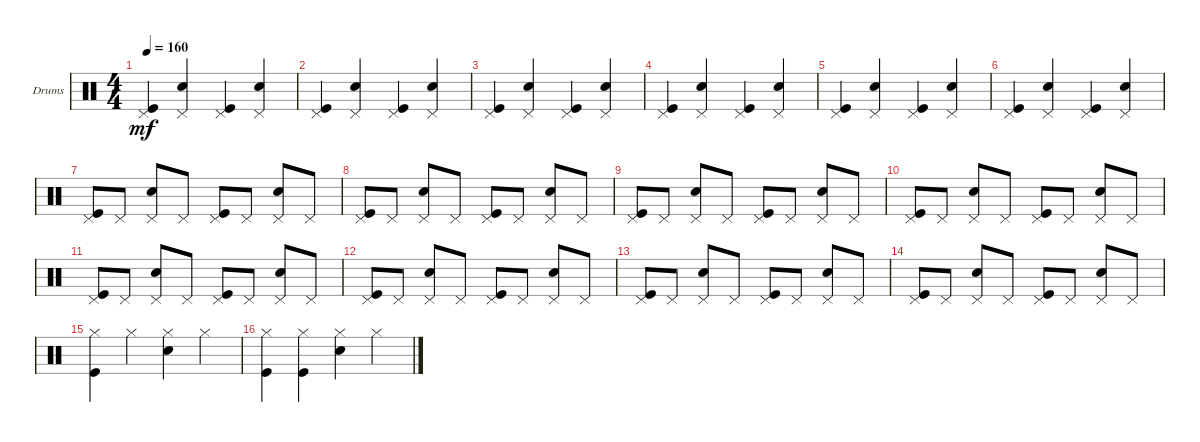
\defaultSystemsLayout 4
\bracketExtendMode groupsimilarinstruments
\firstSystemTrackNameOrientation horizontal
\otherSystemsTrackNameOrientation horizontal
\track ("Drums" "Drums") {instrument percussion}
\staff {score}
\articulation defaults
\ts (4 4)
\tempo 160
\clef neutral
\ks c
("Pedal Hi-Hat (hit)" "Kick (hit)").4{dy mf} ("Pedal Hi-Hat (hit)" "Snare (hit) 2").4 ("Pedal Hi-Hat (hit)" "Kick (hit)").4 ("Pedal Hi-Hat (hit)" "Snare (hit) 2").4 |
("Pedal Hi-Hat (hit)" "Kick (hit)").4 ("Pedal Hi-Hat (hit)" "Snare (hit) 2").4 ("Pedal Hi-Hat (hit)" "Kick (hit)").4 ("Pedal Hi-Hat (hit)" "Snare (hit) 2").4 |
("Pedal Hi-Hat (hit)" "Kick (hit)").4 ("Pedal Hi-Hat (hit)" "Snare (hit) 2").4 ("Pedal Hi-Hat (hit)" "Kick (hit)").4 ("Pedal Hi-Hat (hit)" "Snare (hit) 2").4 |
("Pedal Hi-Hat (hit)" "Kick (hit)").4 ("Pedal Hi-Hat (hit)" "Snare (hit) 2").4 ("Pedal Hi-Hat (hit)" "Kick (hit)").4 ("Pedal Hi-Hat (hit)" "Snare (hit) 2").4 |
("Pedal Hi-Hat (hit)" "Kick (hit)").4 ("Pedal Hi-Hat (hit)" "Snare (hit) 2").4 ("Pedal Hi-Hat (hit)" "Kick (hit)").4 ("Pedal Hi-Hat (hit)" "Snare (hit) 2").4 |
("Pedal Hi-Hat (hit)" "Kick (hit)").4 ("Pedal Hi-Hat (hit)" "Snare (hit) 2").4 ("Pedal Hi-Hat (hit)" "Kick (hit)").4 ("Pedal Hi-Hat (hit)" "Snare (hit) 2").4 |
("Pedal Hi-Hat (hit)" "Kick (hit)").8 "Pedal Hi-Hat (hit)".8 ("Pedal Hi-Hat (hit)" "Snare (hit) 2").8 "Pedal Hi-Hat (hit)".8 ("Pedal Hi-Hat (hit)" "Kick (hit)").8 "Pedal Hi-Hat (hit)".8 ("Pedal Hi-Hat (hit)" "Snare (hit) 2").8 "Pedal Hi-Hat (hit)".8 |
("Pedal Hi-Hat (hit)" "Kick (hit)").8 "Pedal Hi-Hat (hit)".8 ("Pedal Hi-Hat (hit)" "Snare (hit) 2").8 "Pedal Hi-Hat (hit)".8 ("Pedal Hi-Hat (hit)" "Kick (hit)").8 "Pedal Hi-Hat (hit)".8 ("Pedal Hi-Hat (hit)" "Snare (hit) 2").8 "Pedal Hi-Hat (hit)".8 |
("Pedal Hi-Hat (hit)" "Kick (hit)").8 "Pedal Hi-Hat (hit)".8 ("Pedal Hi-Hat (hit)" "Snare (hit) 2").8 "Pedal Hi-Hat (hit)".8 ("Pedal Hi-Hat (hit)" "Kick (hit)").8 "Pedal Hi-Hat (hit)".8 ("Pedal Hi-Hat (hit)" "Snare (hit) 2").8 "Pedal Hi-Hat (hit)".8 |
("Pedal Hi-Hat (hit)" "Kick (hit)").8 "Pedal Hi-Hat (hit)".8 ("Pedal Hi-Hat (hit)" "Snare (hit) 2").8 "Pedal Hi-Hat (hit)".8 ("Pedal Hi-Hat (hit)" "Kick (hit)").8 "Pedal Hi-Hat (hit)".8 ("Pedal Hi-Hat (hit)" "Snare (hit) 2").8 "Pedal Hi-Hat (hit)".8 |
("Pedal Hi-Hat (hit)" "Kick (hit)").8 "Pedal Hi-Hat (hit)".8 ("Pedal Hi-Hat (hit)" "Snare (hit) 2").8 "Pedal Hi-Hat (hit)".8 ("Pedal Hi-Hat (hit)" "Kick (hit)").8 "Pedal Hi-Hat (hit)".8 ("Pedal Hi-Hat (hit)" "Snare (hit) 2").8 "Pedal Hi-Hat (hit)".8 |
("Pedal Hi-Hat (hit)" "Kick (hit)").8 "Pedal Hi-Hat (hit)".8 ("Pedal Hi-Hat (hit)" "Snare (hit) 2").8 "Pedal Hi-Hat (hit)".8 ("Pedal Hi-Hat (hit)" "Kick (hit)").8 "Pedal Hi-Hat (hit)".8 ("Pedal Hi-Hat (hit)" "Snare (hit) 2").8 "Pedal Hi-Hat (hit)".8 |
("Pedal Hi-Hat (hit)" "Kick (hit)").8 "Pedal Hi-Hat (hit)".8 ("Pedal Hi-Hat (hit)" "Snare (hit) 2").8 "Pedal Hi-Hat (hit)".8 ("Pedal Hi-Hat (hit)" "Kick (hit)").8 "Pedal Hi-Hat (hit)".8 ("Pedal Hi-Hat (hit)" "Snare (hit) 2").8 "Pedal Hi-Hat (hit)".8 |
("Pedal Hi-Hat (hit)" "Kick (hit)").8 "Pedal Hi-Hat (hit)".8 ("Pedal Hi-Hat (hit)" "Snare (hit) 2").8 "Pedal Hi-Hat (hit)".8 ("Pedal Hi-Hat (hit)" "Kick (hit)").8 "Pedal Hi-Hat (hit)".8 ("Pedal Hi-Hat (hit)" "Snare (hit) 2").8 "Pedal Hi-Hat (hit)".8 |
("Kick (hit)" "Hi-Hat (closed)").4 "Hi-Hat (closed)".4 ("Hi-Hat (closed)" "Snare (hit) 2").4 "Hi-Hat (closed)".4 |
("Kick (hit)" "Hi-Hat (closed)").4 ("Hi-Hat (closed)" "Kick (hit)").4 ("Hi-Hat (closed)" "Snare (hit) 2").4 "Hi-Hat (closed)".4
